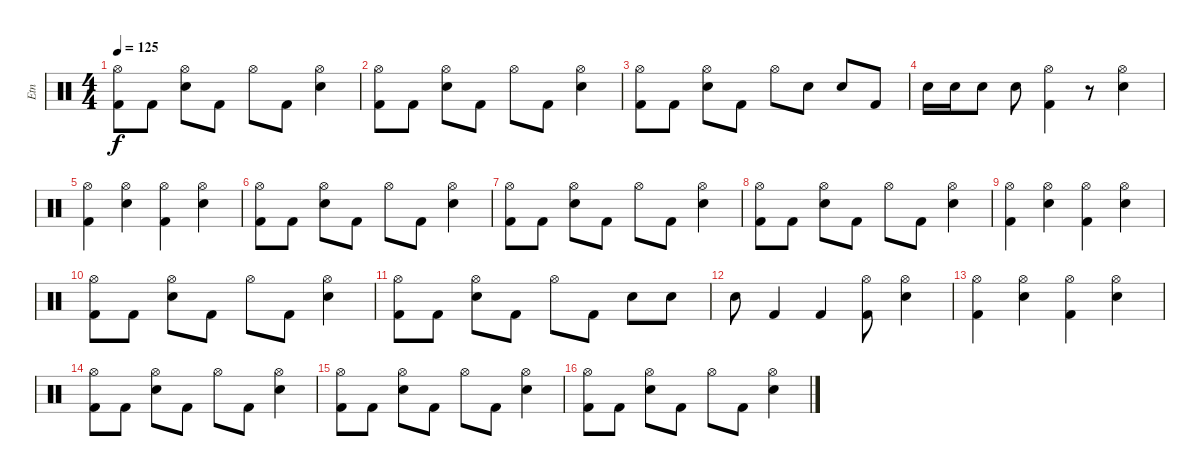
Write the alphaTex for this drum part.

\track ("Etn" "Etn") {instrument percussion}
\staff {score}
\articulation defaults
\ts (4 4)
\tempo 125
\clef neutral
\ks c
("Hi-Hat (open)" "Kick (hit) 2").8{dy f} "Kick (hit) 2".8 ("Hi-Hat (open)" "Snare (hit) 2").8 "Kick (hit) 2".8 "Hi-Hat (open)".8 "Kick (hit) 2".8 ("Hi-Hat (open)" "Snare (hit) 2").4 |
("Hi-Hat (open)" "Kick (hit) 2").8 "Kick (hit) 2".8 ("Hi-Hat (open)" "Snare (hit) 2").8 "Kick (hit) 2".8 "Hi-Hat (open)".8 "Kick (hit) 2".8 ("Hi-Hat (open)" "Snare (hit) 2").4 |
("Hi-Hat (open)" "Kick (hit) 2").8 "Kick (hit) 2".8 ("Hi-Hat (open)" "Snare (hit) 2").8 "Kick (hit) 2".8 "Hi-Hat (open)".8 "Snare (hit) 2".8 "Snare (hit) 2".8 "Kick (hit) 2".8 |
"Snare (hit) 2".16 "Snare (hit) 2".16 "Snare (hit) 2".8 "Snare (hit) 2".8 ("Hi-Hat (open)" "Kick (hit) 2").4 r.8 ("Hi-Hat (open)" "Snare (hit) 2").4 |
("Hi-Hat (open)" "Kick (hit) 2").4 ("Hi-Hat (open)" "Snare (hit) 2").4 ("Hi-Hat (open)" "Kick (hit) 2").4 ("Hi-Hat (open)" "Snare (hit) 2").4 |
("Hi-Hat (open)" "Kick (hit) 2").8 "Kick (hit) 2".8 ("Hi-Hat (open)" "Snare (hit) 2").8 "Kick (hit) 2".8 "Hi-Hat (open)".8 "Kick (hit) 2".8 ("Hi-Hat (open)" "Snare (hit) 2").4 |
("Hi-Hat (open)" "Kick (hit) 2").8 "Kick (hit) 2".8 ("Hi-Hat (open)" "Snare (hit) 2").8 "Kick (hit) 2".8 "Hi-Hat (open)".8 "Kick (hit) 2".8 ("Hi-Hat (open)" "Snare (hit) 2").4 |
("Hi-Hat (open)" "Kick (hit) 2").8 "Kick (hit) 2".8 ("Hi-Hat (open)" "Snare (hit) 2").8 "Kick (hit) 2".8 "Hi-Hat (open)".8 "Kick (hit) 2".8 ("Hi-Hat (open)" "Snare (hit) 2").4 |
("Hi-Hat (open)" "Kick (hit) 2").4 ("Hi-Hat (open)" "Snare (hit) 2").4 ("Hi-Hat (open)" "Kick (hit) 2").4 ("Hi-Hat (open)" "Snare (hit) 2").4 |
("Hi-Hat (open)" "Kick (hit) 2").8 "Kick (hit) 2".8 ("Hi-Hat (open)" "Snare (hit) 2").8 "Kick (hit) 2".8 "Hi-Hat (open)".8 "Kick (hit) 2".8 ("Hi-Hat (open)" "Snare (hit) 2").4 |
("Hi-Hat (open)" "Kick (hit) 2").8 "Kick (hit) 2".8 ("Hi-Hat (open)" "Snare (hit) 2").8 "Kick (hit) 2".8 "Hi-Hat (open)".8 "Kick (hit) 2".8 "Snare (hit) 2".8 "Snare (hit) 2".8 |
"Snare (hit) 2".8 "Kick (hit) 2".4 "Kick (hit) 2".4 ("Hi-Hat (open)" "Kick (hit) 2").8 ("Hi-Hat (open)" "Snare (hit) 2").4 |
("Hi-Hat (open)" "Kick (hit) 2").4 ("Hi-Hat (open)" "Snare (hit) 2").4 ("Hi-Hat (open)" "Kick (hit) 2").4 ("Hi-Hat (open)" "Snare (hit) 2").4 |
("Hi-Hat (open)" "Kick (hit) 2").8 "Kick (hit) 2".8 ("Hi-Hat (open)" "Snare (hit) 2").8 "Kick (hit) 2".8 "Hi-Hat (open)".8 "Kick (hit) 2".8 ("Hi-Hat (open)" "Snare (hit) 2").4 |
("Hi-Hat (open)" "Kick (hit) 2").8 "Kick (hit) 2".8 ("Hi-Hat (open)" "Snare (hit) 2").8 "Kick (hit) 2".8 "Hi-Hat (open)".8 "Kick (hit) 2".8 ("Hi-Hat (open)" "Snare (hit) 2").4 |
("Hi-Hat (open)" "Kick (hit) 2").8 "Kick (hit) 2".8 ("Hi-Hat (open)" "Snare (hit) 2").8 "Kick (hit) 2".8 "Hi-Hat (open)".8 "Kick (hit) 2".8 ("Hi-Hat (open)" "Snare (hit) 2").4
